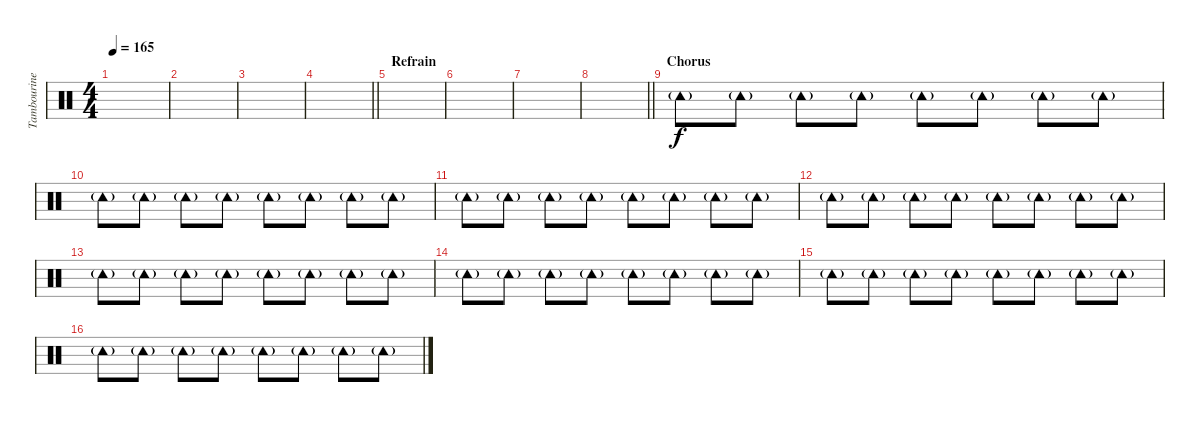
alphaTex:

\track ("Tambourine" "Tambourine") {instrument percussion}
\staff {score}
\articulation defaults
\ts (4 4)
\tempo 165
\clef neutral
\ks c
|
|
|
\barLineRight lightlight
|
\section ("" "Refrain")
|
|
|
\barLineRight lightlight
|
\section ("" "Chorus")
"Tambourine (hit)"{g}.8 "Tambourine (hit)"{g}.8 "Tambourine (hit)"{g}.8 "Tambourine (hit)"{g}.8 "Tambourine (hit)"{g}.8 "Tambourine (hit)"{g}.8 "Tambourine (hit)"{g}.8 "Tambourine (hit)"{g}.8 |
"Tambourine (hit)"{g}.8 "Tambourine (hit)"{g}.8 "Tambourine (hit)"{g}.8 "Tambourine (hit)"{g}.8 "Tambourine (hit)"{g}.8 "Tambourine (hit)"{g}.8 "Tambourine (hit)"{g}.8 "Tambourine (hit)"{g}.8 |
"Tambourine (hit)"{g}.8 "Tambourine (hit)"{g}.8 "Tambourine (hit)"{g}.8 "Tambourine (hit)"{g}.8 "Tambourine (hit)"{g}.8 "Tambourine (hit)"{g}.8 "Tambourine (hit)"{g}.8 "Tambourine (hit)"{g}.8 |
"Tambourine (hit)"{g}.8 "Tambourine (hit)"{g}.8 "Tambourine (hit)"{g}.8 "Tambourine (hit)"{g}.8 "Tambourine (hit)"{g}.8 "Tambourine (hit)"{g}.8 "Tambourine (hit)"{g}.8 "Tambourine (hit)"{g}.8 |
"Tambourine (hit)"{g}.8 "Tambourine (hit)"{g}.8 "Tambourine (hit)"{g}.8 "Tambourine (hit)"{g}.8 "Tambourine (hit)"{g}.8 "Tambourine (hit)"{g}.8 "Tambourine (hit)"{g}.8 "Tambourine (hit)"{g}.8 |
"Tambourine (hit)"{g}.8 "Tambourine (hit)"{g}.8 "Tambourine (hit)"{g}.8 "Tambourine (hit)"{g}.8 "Tambourine (hit)"{g}.8 "Tambourine (hit)"{g}.8 "Tambourine (hit)"{g}.8 "Tambourine (hit)"{g}.8 |
"Tambourine (hit)"{g}.8 "Tambourine (hit)"{g}.8 "Tambourine (hit)"{g}.8 "Tambourine (hit)"{g}.8 "Tambourine (hit)"{g}.8 "Tambourine (hit)"{g}.8 "Tambourine (hit)"{g}.8 "Tambourine (hit)"{g}.8 |
"Tambourine (hit)"{g}.8 "Tambourine (hit)"{g}.8 "Tambourine (hit)"{g}.8 "Tambourine (hit)"{g}.8 "Tambourine (hit)"{g}.8 "Tambourine (hit)"{g}.8 "Tambourine (hit)"{g}.8 "Tambourine (hit)"{g}.8
